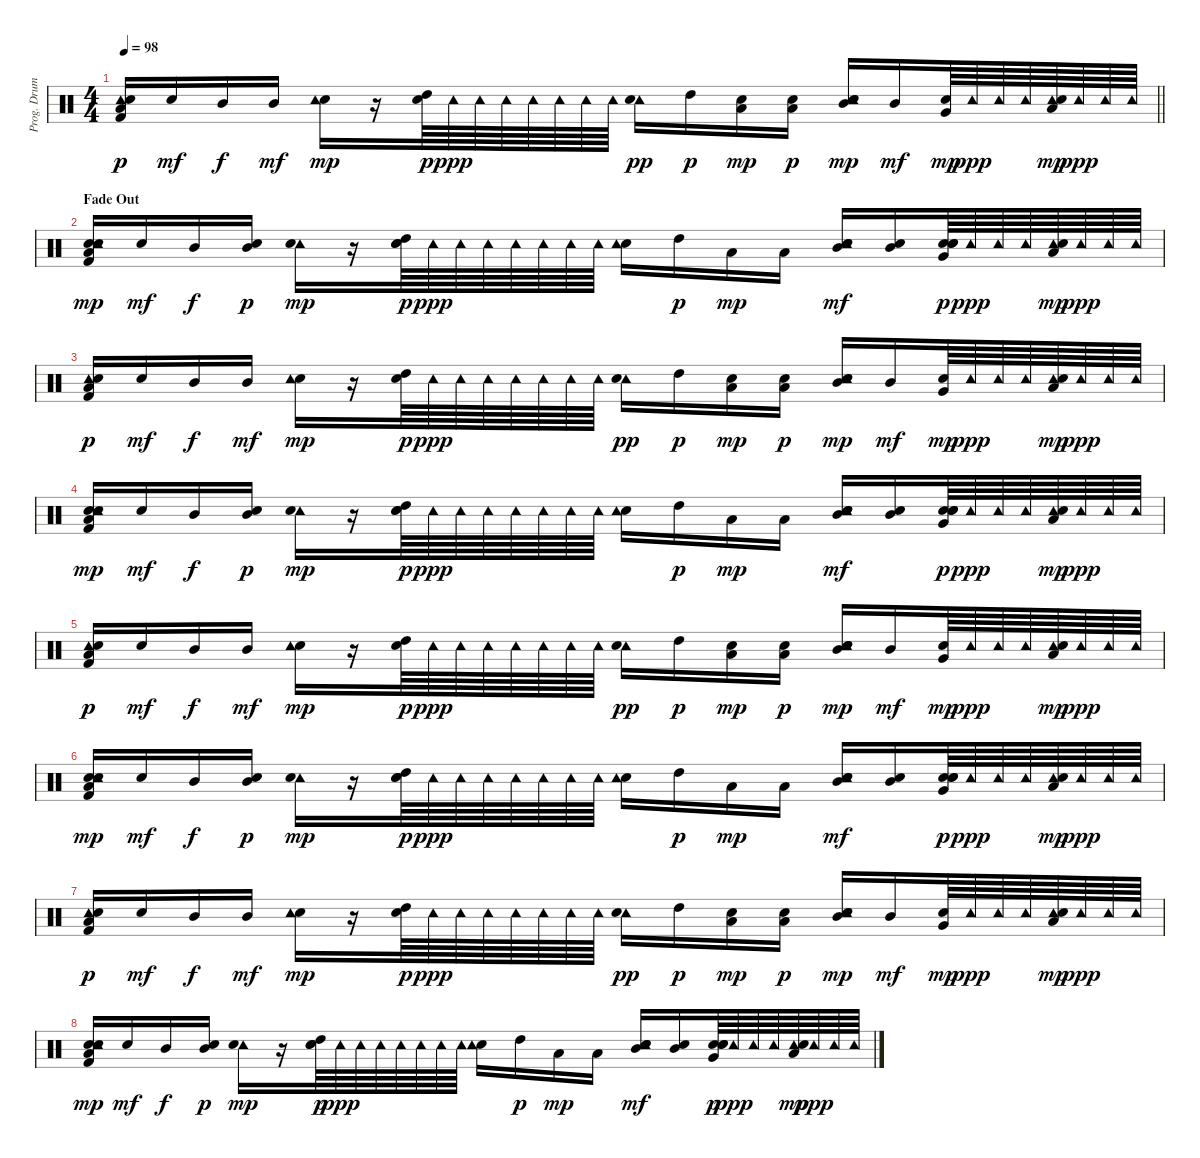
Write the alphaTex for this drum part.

\track ("Prog. Drums" "Prog. Drum") {instrument percussion}
\staff {score}
\articulation defaults
\ts (4 4)
\tempo 98
\clef neutral
\barLineRight lightlight
\ks c
("Tambourine (hit)" "Snare (hit)" "Low Floor Tom (hit)" "Kick (hit) 2").16{dy p} "Snare (hit)".16{dy mf} "Mid Tom (hit)".16{dy f} "Mid Tom (hit)".16{dy mf} ("Snare (hit) 2" "Tambourine (hit)").16{dy mp} r.16 ("High Tom (hit)" "Snare (hit)").64{dy p} "Tambourine (hit)".64{dy ppp} "Tambourine (hit)".64 "Tambourine (hit)".64 "Tambourine (hit)".64 "Tambourine (hit)".64 "Tambourine (hit)".64 "Tambourine (hit)".64 ("Tambourine (hit)" "Snare (hit) 2").16{dy pp} "High Tom (hit)".16{dy p} ("Snare (hit)" "Low Tom (hit)").16{dy mp} ("Low Tom (hit)" "Snare (hit)").16{dy p} ("Snare (hit) 2" "Mid Tom (hit)" "Snare (hit)" "Tambourine (hit)").16{dy mp} "Mid Tom (hit)".16{dy mf} ("Snare (hit)" "Very Low Tom (hit)").64{dy mp} "Tambourine (hit)".64{dy ppp} "Tambourine (hit)".64 "Tambourine (hit)".64 ("Tambourine (hit)" "Snare (hit) 2" "Low Tom (hit)").64{dy mp} "Tambourine (hit)".64{dy ppp} "Tambourine (hit)".64 "Tambourine (hit)".64 |
\section ("" "Fade Out")
("Snare (hit)" "Snare (hit)" "Tambourine (hit)" "Kick (hit) 2" "Low Floor Tom (hit)").16{dy mp volume 10} "Snare (hit)".16{dy mf} "Mid Tom (hit)".16{dy f} ("Mid Tom (hit)" "Snare (hit)").16{dy p} ("Tambourine (hit)" "Snare (hit) 2").16{dy mp} r.16 ("High Tom (hit)" "Snare (hit)" "Snare (hit)").64{dy p} "Tambourine (hit)".64{dy ppp} "Tambourine (hit)".64 "Tambourine (hit)".64 "Tambourine (hit)".64 "Tambourine (hit)".64 "Tambourine (hit)".64 "Tambourine (hit)".64 ("Snare (hit) 2" "Tambourine (hit)").16 "High Tom (hit)".16{dy p} "Low Tom (hit)".16{dy mp} "Low Tom (hit)".16 ("Tambourine (hit)" "Snare (hit)" "Snare (hit) 2" "Mid Tom (hit)").16{dy mf} ("Snare (hit) 2" "Mid Tom (hit)").16 ("Snare (hit) 2" "Very Low Tom (hit)" "Snare (hit)" "Snare (hit)").64{dy p} "Tambourine (hit)".64{dy ppp} "Tambourine (hit)".64 "Tambourine (hit)".64 ("Tambourine (hit)" "Snare (hit) 2" "Low Tom (hit)").64{dy mp} "Tambourine (hit)".64{dy ppp} "Tambourine (hit)".64 "Tambourine (hit)".64 |
("Tambourine (hit)" "Snare (hit)" "Low Floor Tom (hit)" "Kick (hit) 2").16{dy p} "Snare (hit)".16{dy mf} "Mid Tom (hit)".16{dy f} "Mid Tom (hit)".16{dy mf} ("Snare (hit) 2" "Tambourine (hit)").16{dy mp} r.16 ("High Tom (hit)" "Snare (hit)").64{dy p} "Tambourine (hit)".64{dy ppp} "Tambourine (hit)".64 "Tambourine (hit)".64 "Tambourine (hit)".64 "Tambourine (hit)".64 "Tambourine (hit)".64 "Tambourine (hit)".64 ("Tambourine (hit)" "Snare (hit) 2").16{dy pp} "High Tom (hit)".16{dy p} ("Snare (hit)" "Low Tom (hit)").16{dy mp} ("Low Tom (hit)" "Snare (hit)").16{dy p} ("Snare (hit) 2" "Mid Tom (hit)" "Snare (hit)" "Tambourine (hit)").16{dy mp} "Mid Tom (hit)".16{dy mf} ("Snare (hit)" "Very Low Tom (hit)").64{dy mp} "Tambourine (hit)".64{dy ppp} "Tambourine (hit)".64 "Tambourine (hit)".64 ("Tambourine (hit)" "Snare (hit) 2" "Low Tom (hit)").64{dy mp} "Tambourine (hit)".64{dy ppp} "Tambourine (hit)".64 "Tambourine (hit)".64 |
("Snare (hit)" "Snare (hit)" "Tambourine (hit)" "Kick (hit) 2" "Low Floor Tom (hit)").16{dy mp} "Snare (hit)".16{dy mf} "Mid Tom (hit)".16{dy f} ("Mid Tom (hit)" "Snare (hit)").16{dy p} ("Tambourine (hit)" "Snare (hit) 2").16{dy mp} r.16 ("High Tom (hit)" "Snare (hit)" "Snare (hit)").64{dy p} "Tambourine (hit)".64{dy ppp} "Tambourine (hit)".64 "Tambourine (hit)".64 "Tambourine (hit)".64 "Tambourine (hit)".64 "Tambourine (hit)".64 "Tambourine (hit)".64 ("Snare (hit) 2" "Tambourine (hit)").16 "High Tom (hit)".16{dy p} "Low Tom (hit)".16{dy mp} "Low Tom (hit)".16 ("Tambourine (hit)" "Snare (hit)" "Snare (hit) 2" "Mid Tom (hit)").16{dy mf} ("Snare (hit) 2" "Mid Tom (hit)").16 ("Snare (hit) 2" "Very Low Tom (hit)" "Snare (hit)" "Snare (hit)").64{dy p} "Tambourine (hit)".64{dy ppp} "Tambourine (hit)".64 "Tambourine (hit)".64 ("Tambourine (hit)" "Snare (hit) 2" "Low Tom (hit)").64{dy mp} "Tambourine (hit)".64{dy ppp} "Tambourine (hit)".64 "Tambourine (hit)".64 |
("Tambourine (hit)" "Snare (hit)" "Low Floor Tom (hit)" "Kick (hit) 2").16{dy p volume 8} "Snare (hit)".16{dy mf} "Mid Tom (hit)".16{dy f} "Mid Tom (hit)".16{dy mf} ("Snare (hit) 2" "Tambourine (hit)").16{dy mp} r.16 ("High Tom (hit)" "Snare (hit)").64{dy p} "Tambourine (hit)".64{dy ppp} "Tambourine (hit)".64 "Tambourine (hit)".64 "Tambourine (hit)".64 "Tambourine (hit)".64 "Tambourine (hit)".64 "Tambourine (hit)".64 ("Tambourine (hit)" "Snare (hit) 2").16{dy pp} "High Tom (hit)".16{dy p} ("Snare (hit)" "Low Tom (hit)").16{dy mp} ("Low Tom (hit)" "Snare (hit)").16{dy p} ("Snare (hit) 2" "Mid Tom (hit)" "Snare (hit)" "Tambourine (hit)").16{dy mp} "Mid Tom (hit)".16{dy mf} ("Snare (hit)" "Very Low Tom (hit)").64{dy mp} "Tambourine (hit)".64{dy ppp} "Tambourine (hit)".64 "Tambourine (hit)".64 ("Tambourine (hit)" "Snare (hit) 2" "Low Tom (hit)").64{dy mp} "Tambourine (hit)".64{dy ppp} "Tambourine (hit)".64 "Tambourine (hit)".64 |
("Snare (hit)" "Snare (hit)" "Tambourine (hit)" "Kick (hit) 2" "Low Floor Tom (hit)").16{dy mp} "Snare (hit)".16{dy mf} "Mid Tom (hit)".16{dy f} ("Mid Tom (hit)" "Snare (hit)").16{dy p} ("Tambourine (hit)" "Snare (hit) 2").16{dy mp} r.16 ("High Tom (hit)" "Snare (hit)" "Snare (hit)").64{dy p} "Tambourine (hit)".64{dy ppp} "Tambourine (hit)".64 "Tambourine (hit)".64 "Tambourine (hit)".64 "Tambourine (hit)".64 "Tambourine (hit)".64 "Tambourine (hit)".64 ("Snare (hit) 2" "Tambourine (hit)").16 "High Tom (hit)".16{dy p} "Low Tom (hit)".16{dy mp} "Low Tom (hit)".16 ("Tambourine (hit)" "Snare (hit)" "Snare (hit) 2" "Mid Tom (hit)").16{dy mf} ("Snare (hit) 2" "Mid Tom (hit)").16 ("Snare (hit) 2" "Very Low Tom (hit)" "Snare (hit)" "Snare (hit)").64{dy p} "Tambourine (hit)".64{dy ppp} "Tambourine (hit)".64 "Tambourine (hit)".64 ("Tambourine (hit)" "Snare (hit) 2" "Low Tom (hit)").64{dy mp} "Tambourine (hit)".64{dy ppp} "Tambourine (hit)".64 "Tambourine (hit)".64 |
("Tambourine (hit)" "Snare (hit)" "Low Floor Tom (hit)" "Kick (hit) 2").16{dy p} "Snare (hit)".16{dy mf} "Mid Tom (hit)".16{dy f} "Mid Tom (hit)".16{dy mf} ("Snare (hit) 2" "Tambourine (hit)").16{dy mp} r.16 ("High Tom (hit)" "Snare (hit)").64{dy p} "Tambourine (hit)".64{dy ppp} "Tambourine (hit)".64 "Tambourine (hit)".64 "Tambourine (hit)".64 "Tambourine (hit)".64 "Tambourine (hit)".64 "Tambourine (hit)".64 ("Tambourine (hit)" "Snare (hit) 2").16{dy pp} "High Tom (hit)".16{dy p} ("Snare (hit)" "Low Tom (hit)").16{dy mp} ("Low Tom (hit)" "Snare (hit)").16{dy p} ("Snare (hit) 2" "Mid Tom (hit)" "Snare (hit)" "Tambourine (hit)").16{dy mp} "Mid Tom (hit)".16{dy mf} ("Snare (hit)" "Very Low Tom (hit)").64{dy mp} "Tambourine (hit)".64{dy ppp} "Tambourine (hit)".64 "Tambourine (hit)".64 ("Tambourine (hit)" "Snare (hit) 2" "Low Tom (hit)").64{dy mp} "Tambourine (hit)".64{dy ppp} "Tambourine (hit)".64 "Tambourine (hit)".64 |
("Snare (hit)" "Snare (hit)" "Tambourine (hit)" "Kick (hit) 2" "Low Floor Tom (hit)").16{dy mp volume 6} "Snare (hit)".16{dy mf} "Mid Tom (hit)".16{dy f} ("Mid Tom (hit)" "Snare (hit)").16{dy p} ("Tambourine (hit)" "Snare (hit) 2").16{dy mp} r.16 ("High Tom (hit)" "Snare (hit)" "Snare (hit)").64{dy p} "Tambourine (hit)".64{dy ppp} "Tambourine (hit)".64 "Tambourine (hit)".64 "Tambourine (hit)".64 "Tambourine (hit)".64 "Tambourine (hit)".64 "Tambourine (hit)".64 ("Snare (hit) 2" "Tambourine (hit)").16 "High Tom (hit)".16{dy p} "Low Tom (hit)".16{dy mp} "Low Tom (hit)".16 ("Tambourine (hit)" "Snare (hit)" "Snare (hit) 2" "Mid Tom (hit)").16{dy mf} ("Snare (hit) 2" "Mid Tom (hit)").16 ("Snare (hit) 2" "Very Low Tom (hit)" "Snare (hit)" "Snare (hit)").64{dy p} "Tambourine (hit)".64{dy ppp} "Tambourine (hit)".64 "Tambourine (hit)".64 ("Tambourine (hit)" "Snare (hit) 2" "Low Tom (hit)").64{dy mp} "Tambourine (hit)".64{dy ppp} "Tambourine (hit)".64 "Tambourine (hit)".64
